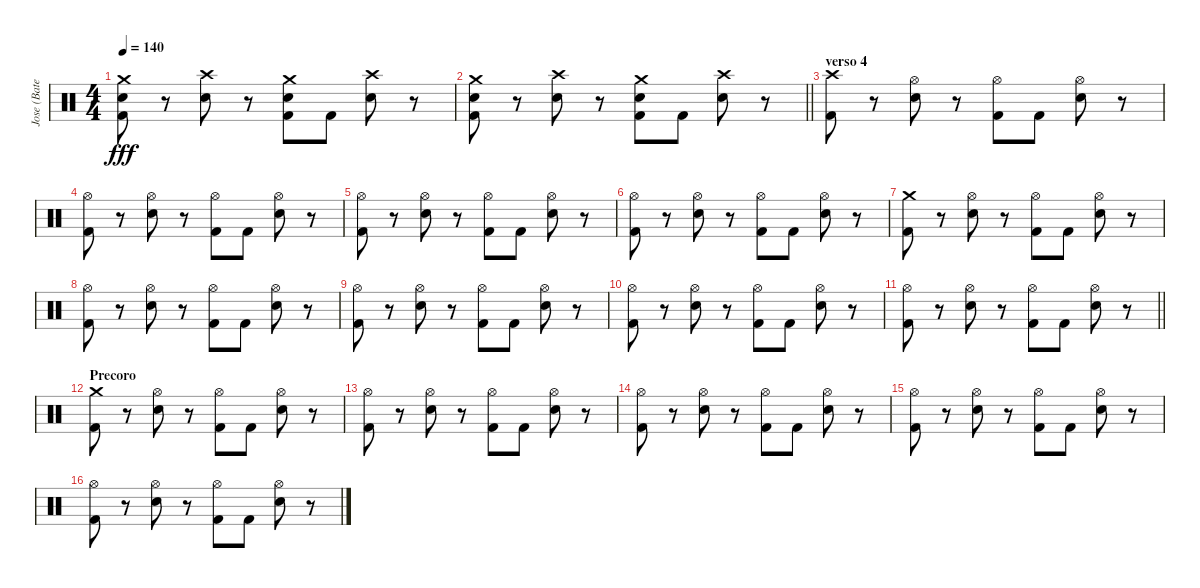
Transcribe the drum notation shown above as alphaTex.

\track ("Jose (Bateria)" "Jose (Bate") {instrument percussion}
\staff {score}
\articulation defaults
\ts (4 4)
\tempo 140
\clef neutral
\ks aminor
("Crash medium (hit)" "Snare (hit) 2" "Kick (hit) 2").8{dy fff} r.8 ("Crash high (hit)" "Snare (hit) 2").8 r.8 ("Crash medium (hit)" "Snare (hit) 2" "Kick (hit) 2").8 "Kick (hit) 2".8 ("Crash high (hit)" "Snare (hit) 2").8 r.8 |
\barLineRight lightlight
("Crash medium (hit)" "Snare (hit) 2" "Kick (hit) 2").8 r.8 ("Crash high (hit)" "Snare (hit) 2").8 r.8 ("Crash medium (hit)" "Snare (hit) 2" "Kick (hit) 2").8 "Kick (hit) 2".8 ("Crash high (hit)" "Snare (hit) 2").8 r.8 |
\section ("" "verso 4")
("Crash high (hit)" "Kick (hit) 2").8 r.8 ("Hi-Hat (open)" "Snare (hit) 2").8 r.8 ("Hi-Hat (open)" "Kick (hit) 2").8 "Kick (hit) 2".8 ("Hi-Hat (open)" "Snare (hit) 2").8 r.8 |
("Hi-Hat (open)" "Kick (hit) 2").8 r.8 ("Hi-Hat (open)" "Snare (hit) 2").8 r.8 ("Hi-Hat (open)" "Kick (hit) 2").8 "Kick (hit) 2".8 ("Hi-Hat (open)" "Snare (hit) 2").8 r.8 |
("Hi-Hat (open)" "Kick (hit) 2").8 r.8 ("Hi-Hat (open)" "Snare (hit) 2").8 r.8 ("Hi-Hat (open)" "Kick (hit) 2").8 "Kick (hit) 2".8 ("Hi-Hat (open)" "Snare (hit) 2").8 r.8 |
("Hi-Hat (open)" "Kick (hit) 2").8 r.8 ("Hi-Hat (open)" "Snare (hit) 2").8 r.8 ("Hi-Hat (open)" "Kick (hit) 2").8 "Kick (hit) 2".8 ("Hi-Hat (open)" "Snare (hit) 2").8 r.8 |
("Crash medium (hit)" "Kick (hit) 2").8 r.8 ("Hi-Hat (open)" "Snare (hit) 2").8 r.8 ("Hi-Hat (open)" "Kick (hit) 2").8 "Kick (hit) 2".8 ("Hi-Hat (open)" "Snare (hit) 2").8 r.8 |
("Hi-Hat (open)" "Kick (hit) 2").8 r.8 ("Hi-Hat (open)" "Snare (hit) 2").8 r.8 ("Hi-Hat (open)" "Kick (hit) 2").8 "Kick (hit) 2".8 ("Hi-Hat (open)" "Snare (hit) 2").8 r.8 |
("Hi-Hat (open)" "Kick (hit) 2").8 r.8 ("Hi-Hat (open)" "Snare (hit) 2").8 r.8 ("Hi-Hat (open)" "Kick (hit) 2").8 "Kick (hit) 2".8 ("Hi-Hat (open)" "Snare (hit) 2").8 r.8 |
("Hi-Hat (open)" "Kick (hit) 2").8 r.8 ("Hi-Hat (open)" "Snare (hit) 2").8 r.8 ("Hi-Hat (open)" "Kick (hit) 2").8 "Kick (hit) 2".8 ("Hi-Hat (open)" "Snare (hit) 2").8 r.8 |
\barLineRight lightlight
("Hi-Hat (open)" "Kick (hit) 2").8 r.8 ("Hi-Hat (open)" "Snare (hit) 2").8 r.8 ("Hi-Hat (open)" "Kick (hit) 2").8 "Kick (hit) 2".8 ("Hi-Hat (open)" "Snare (hit) 2").8 r.8 |
\section ("" "Precoro")
("Crash medium (hit)" "Kick (hit) 2").8 r.8 ("Hi-Hat (open)" "Snare (hit) 2").8 r.8 ("Hi-Hat (open)" "Kick (hit) 2").8 "Kick (hit) 2".8 ("Hi-Hat (open)" "Snare (hit) 2").8 r.8 |
("Hi-Hat (open)" "Kick (hit) 2").8 r.8 ("Hi-Hat (open)" "Snare (hit) 2").8 r.8 ("Hi-Hat (open)" "Kick (hit) 2").8 "Kick (hit) 2".8 ("Hi-Hat (open)" "Snare (hit) 2").8 r.8 |
("Hi-Hat (open)" "Kick (hit) 2").8 r.8 ("Hi-Hat (open)" "Snare (hit) 2").8 r.8 ("Hi-Hat (open)" "Kick (hit) 2").8 "Kick (hit) 2".8 ("Hi-Hat (open)" "Snare (hit) 2").8 r.8 |
("Hi-Hat (open)" "Kick (hit) 2").8 r.8 ("Hi-Hat (open)" "Snare (hit) 2").8 r.8 ("Hi-Hat (open)" "Kick (hit) 2").8 "Kick (hit) 2".8 ("Hi-Hat (open)" "Snare (hit) 2").8 r.8 |
("Hi-Hat (open)" "Kick (hit) 2").8 r.8 ("Hi-Hat (open)" "Snare (hit) 2").8 r.8 ("Hi-Hat (open)" "Kick (hit) 2").8 "Kick (hit) 2".8 ("Hi-Hat (open)" "Snare (hit) 2").8 r.8
